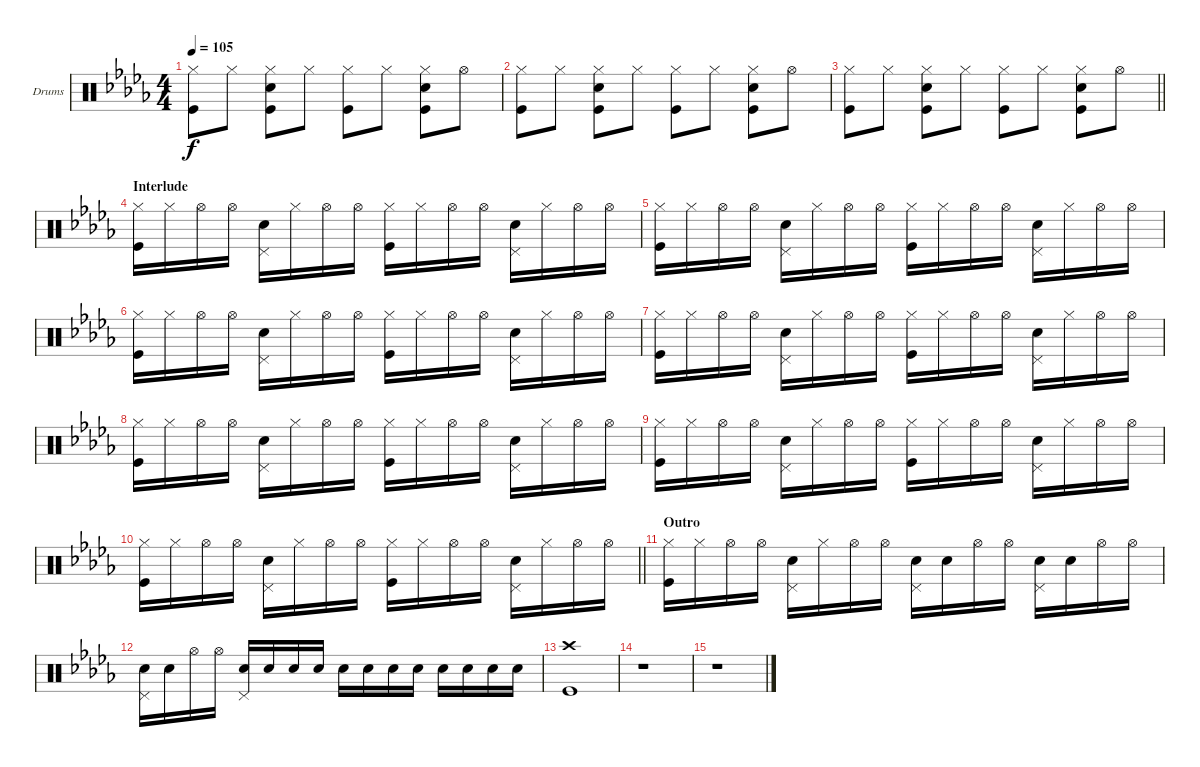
\bracketExtendMode groupsimilarinstruments
\firstSystemTrackNameOrientation horizontal
\otherSystemsTrackNameOrientation horizontal
\track ("Fabrizio" "Drums") {instrument percussion}
\staff {score}
\articulation defaults
\ts (4 4)
\tempo 105
\clef neutral
\ks db
("Hi-Hat (closed)" "Kick (hit)").8{dy f} "Hi-Hat (closed)".8 ("Hi-Hat (closed)" "Snare (hit) 2" "Kick (hit)").8 "Hi-Hat (closed)".8 ("Hi-Hat (closed)" "Kick (hit)").8 "Hi-Hat (closed)".8 ("Hi-Hat (closed)" "Snare (hit) 2" "Kick (hit)").8 "Hi-Hat (open)".8 |
("Hi-Hat (closed)" "Kick (hit)").8 "Hi-Hat (closed)".8 ("Hi-Hat (closed)" "Snare (hit) 2" "Kick (hit)").8 "Hi-Hat (closed)".8 ("Hi-Hat (closed)" "Kick (hit)").8 "Hi-Hat (closed)".8 ("Hi-Hat (closed)" "Snare (hit) 2" "Kick (hit)").8 "Hi-Hat (open)".8 |
\barLineRight lightlight
("Hi-Hat (closed)" "Kick (hit)").8 "Hi-Hat (closed)".8 ("Hi-Hat (closed)" "Snare (hit) 2" "Kick (hit)").8 "Hi-Hat (closed)".8 ("Hi-Hat (closed)" "Kick (hit)").8 "Hi-Hat (closed)".8 ("Hi-Hat (closed)" "Snare (hit) 2" "Kick (hit)").8 "Hi-Hat (open)".8 |
\section ("" "Interlude")
("Hi-Hat (closed)" "Kick (hit)").16 "Hi-Hat (closed)".16 "Hi-Hat (open)".16 "Hi-Hat (open)".16 ("Pedal Hi-Hat (hit)" "Snare (hit) 2").16 "Hi-Hat (closed)".16 "Hi-Hat (open)".16 "Hi-Hat (open)".16 ("Hi-Hat (closed)" "Kick (hit)").16 "Hi-Hat (closed)".16 "Hi-Hat (open)".16 "Hi-Hat (open)".16 ("Pedal Hi-Hat (hit)" "Snare (hit) 2").16 "Hi-Hat (closed)".16 "Hi-Hat (open)".16 "Hi-Hat (open)".16 |
("Hi-Hat (closed)" "Kick (hit)").16 "Hi-Hat (closed)".16 "Hi-Hat (open)".16 "Hi-Hat (open)".16 ("Pedal Hi-Hat (hit)" "Snare (hit) 2").16 "Hi-Hat (closed)".16 "Hi-Hat (open)".16 "Hi-Hat (open)".16 ("Hi-Hat (closed)" "Kick (hit)").16 "Hi-Hat (closed)".16 "Hi-Hat (open)".16 "Hi-Hat (open)".16 ("Pedal Hi-Hat (hit)" "Snare (hit) 2").16 "Hi-Hat (closed)".16 "Hi-Hat (open)".16 "Hi-Hat (open)".16 |
("Hi-Hat (closed)" "Kick (hit)").16 "Hi-Hat (closed)".16 "Hi-Hat (open)".16 "Hi-Hat (open)".16 ("Pedal Hi-Hat (hit)" "Snare (hit) 2").16 "Hi-Hat (closed)".16 "Hi-Hat (open)".16 "Hi-Hat (open)".16 ("Hi-Hat (closed)" "Kick (hit)").16 "Hi-Hat (closed)".16 "Hi-Hat (open)".16 "Hi-Hat (open)".16 ("Pedal Hi-Hat (hit)" "Snare (hit) 2").16 "Hi-Hat (closed)".16 "Hi-Hat (open)".16 "Hi-Hat (open)".16 |
("Hi-Hat (closed)" "Kick (hit)").16 "Hi-Hat (closed)".16 "Hi-Hat (open)".16 "Hi-Hat (open)".16 ("Pedal Hi-Hat (hit)" "Snare (hit) 2").16 "Hi-Hat (closed)".16 "Hi-Hat (open)".16 "Hi-Hat (open)".16 ("Hi-Hat (closed)" "Kick (hit)").16 "Hi-Hat (closed)".16 "Hi-Hat (open)".16 "Hi-Hat (open)".16 ("Pedal Hi-Hat (hit)" "Snare (hit) 2").16 "Hi-Hat (closed)".16 "Hi-Hat (open)".16 "Hi-Hat (open)".16 |
("Hi-Hat (closed)" "Kick (hit)").16 "Hi-Hat (closed)".16 "Hi-Hat (open)".16 "Hi-Hat (open)".16 ("Pedal Hi-Hat (hit)" "Snare (hit) 2").16 "Hi-Hat (closed)".16 "Hi-Hat (open)".16 "Hi-Hat (open)".16 ("Hi-Hat (closed)" "Kick (hit)").16 "Hi-Hat (closed)".16 "Hi-Hat (open)".16 "Hi-Hat (open)".16 ("Pedal Hi-Hat (hit)" "Snare (hit) 2").16 "Hi-Hat (closed)".16 "Hi-Hat (open)".16 "Hi-Hat (open)".16 |
("Hi-Hat (closed)" "Kick (hit)").16 "Hi-Hat (closed)".16 "Hi-Hat (open)".16 "Hi-Hat (open)".16 ("Pedal Hi-Hat (hit)" "Snare (hit) 2").16 "Hi-Hat (closed)".16 "Hi-Hat (open)".16 "Hi-Hat (open)".16 ("Hi-Hat (closed)" "Kick (hit)").16 "Hi-Hat (closed)".16 "Hi-Hat (open)".16 "Hi-Hat (open)".16 ("Pedal Hi-Hat (hit)" "Snare (hit) 2").16 "Hi-Hat (closed)".16 "Hi-Hat (open)".16 "Hi-Hat (open)".16 |
\barLineRight lightlight
("Hi-Hat (closed)" "Kick (hit)").16 "Hi-Hat (closed)".16 "Hi-Hat (open)".16 "Hi-Hat (open)".16 ("Pedal Hi-Hat (hit)" "Snare (hit) 2").16 "Hi-Hat (closed)".16 "Hi-Hat (open)".16 "Hi-Hat (open)".16 ("Hi-Hat (closed)" "Kick (hit)").16 "Hi-Hat (closed)".16 "Hi-Hat (open)".16 "Hi-Hat (open)".16 ("Pedal Hi-Hat (hit)" "Snare (hit) 2").16 "Hi-Hat (closed)".16 "Hi-Hat (open)".16 "Hi-Hat (open)".16 |
\section ("" "Outro")
("Hi-Hat (closed)" "Kick (hit)").16 "Hi-Hat (closed)".16 "Hi-Hat (open)".16 "Hi-Hat (open)".16 ("Pedal Hi-Hat (hit)" "Snare (hit) 2").16 "Hi-Hat (closed)".16 "Hi-Hat (open)".16 "Hi-Hat (open)".16 ("Pedal Hi-Hat (hit)" "Snare (hit) 2").16 "Snare (hit) 2".16 "Hi-Hat (open)".16 "Hi-Hat (open)".16 ("Pedal Hi-Hat (hit)" "Snare (hit) 2").16 "Snare (hit) 2".16 "Hi-Hat (open)".16 "Hi-Hat (open)".16 |
("Pedal Hi-Hat (hit)" "Snare (hit) 2").16 "Snare (hit) 2".16 "Hi-Hat (open)".16 "Hi-Hat (open)".16 ("Pedal Hi-Hat (hit)" "Snare (hit) 2").16 "Snare (hit) 2".16 "Snare (hit) 2".16 "Snare (hit) 2".16 "Snare (hit) 2".16 "Snare (hit) 2".16 "Snare (hit) 2".16 "Snare (hit) 2".16 "Snare (hit) 2".16 "Snare (hit) 2".16 "Snare (hit) 2".16 "Snare (hit) 2".16 |
("Crash high (hit)" "Kick (hit)").1 |
r.1 |
r.1
